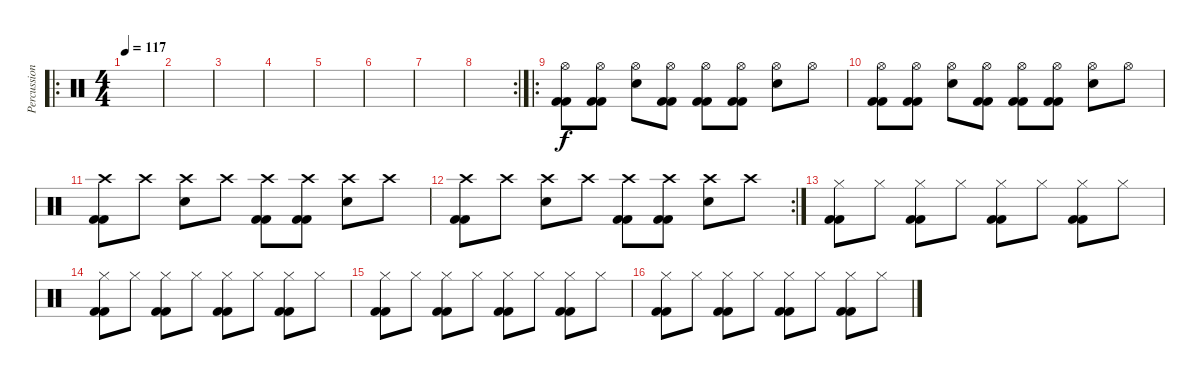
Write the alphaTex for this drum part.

\track ("Percussions" "Percussion") {instrument percussion}
\staff {score}
\articulation defaults
\ro
\ts (4 4)
\tempo 117
\clef neutral
\ks c
|
|
|
|
|
|
|
\rc 2
|
\ro
("Kick (hit) 2" "Kick (hit) 2" "Hi-Hat (open)").8 ("Kick (hit) 2" "Kick (hit) 2" "Hi-Hat (open)").8 ("Snare (hit) 2" "Hi-Hat (open)").8 ("Kick (hit) 2" "Kick (hit) 2" "Hi-Hat (open)").8 ("Kick (hit) 2" "Kick (hit) 2" "Hi-Hat (open)").8 ("Kick (hit) 2" "Kick (hit) 2" "Hi-Hat (open)").8 ("Snare (hit) 2" "Hi-Hat (open)").8 "Hi-Hat (open)".8 |
("Kick (hit) 2" "Kick (hit) 2" "Hi-Hat (open)").8 ("Kick (hit) 2" "Kick (hit) 2" "Hi-Hat (open)").8 ("Snare (hit) 2" "Hi-Hat (open)").8 ("Kick (hit) 2" "Kick (hit) 2" "Hi-Hat (open)").8 ("Kick (hit) 2" "Kick (hit) 2" "Hi-Hat (open)").8 ("Kick (hit) 2" "Kick (hit) 2" "Hi-Hat (open)").8 ("Snare (hit) 2" "Hi-Hat (open)").8 "Hi-Hat (open)".8 |
("Kick (hit) 2" "Kick (hit) 2" "Crash high (hit)").8 "Crash high (hit)".8 ("Snare (hit) 2" "Crash high (hit)").8 "Crash high (hit)".8 ("Kick (hit) 2" "Kick (hit) 2" "Crash high (hit)").8 ("Kick (hit) 2" "Kick (hit) 2" "Crash high (hit)").8 ("Snare (hit) 2" "Crash high (hit)").8 "Crash high (hit)".8 |
\rc 2
("Kick (hit) 2" "Kick (hit) 2" "Crash high (hit)").8 "Crash high (hit)".8 ("Snare (hit) 2" "Crash high (hit)").8 "Crash high (hit)".8 ("Kick (hit) 2" "Kick (hit) 2" "Crash high (hit)").8 ("Kick (hit) 2" "Kick (hit) 2" "Crash high (hit)").8 ("Snare (hit) 2" "Crash high (hit)").8 "Crash high (hit)".8 |
("Kick (hit) 2" "Kick (hit) 2" "Hi-Hat (closed)").8 "Hi-Hat (closed)".8 ("Kick (hit) 2" "Kick (hit) 2" "Hi-Hat (closed)").8 "Hi-Hat (closed)".8 ("Kick (hit) 2" "Kick (hit) 2" "Hi-Hat (closed)").8 "Hi-Hat (closed)".8 ("Kick (hit) 2" "Kick (hit) 2" "Hi-Hat (closed)").8 "Hi-Hat (closed)".8 |
("Kick (hit) 2" "Kick (hit) 2" "Hi-Hat (closed)").8 "Hi-Hat (closed)".8 ("Kick (hit) 2" "Kick (hit) 2" "Hi-Hat (closed)").8 "Hi-Hat (closed)".8 ("Kick (hit) 2" "Kick (hit) 2" "Hi-Hat (closed)").8 "Hi-Hat (closed)".8 ("Kick (hit) 2" "Kick (hit) 2" "Hi-Hat (closed)").8 "Hi-Hat (closed)".8 |
("Kick (hit) 2" "Kick (hit) 2" "Hi-Hat (closed)").8 "Hi-Hat (closed)".8 ("Kick (hit) 2" "Kick (hit) 2" "Hi-Hat (closed)").8 "Hi-Hat (closed)".8 ("Kick (hit) 2" "Kick (hit) 2" "Hi-Hat (closed)").8 "Hi-Hat (closed)".8 ("Kick (hit) 2" "Kick (hit) 2" "Hi-Hat (closed)").8 "Hi-Hat (closed)".8 |
("Kick (hit) 2" "Kick (hit) 2" "Hi-Hat (closed)").8 "Hi-Hat (closed)".8 ("Kick (hit) 2" "Kick (hit) 2" "Hi-Hat (closed)").8 "Hi-Hat (closed)".8 ("Kick (hit) 2" "Kick (hit) 2" "Hi-Hat (closed)").8 "Hi-Hat (closed)".8 ("Kick (hit) 2" "Kick (hit) 2" "Hi-Hat (closed)").8 "Hi-Hat (closed)".8
